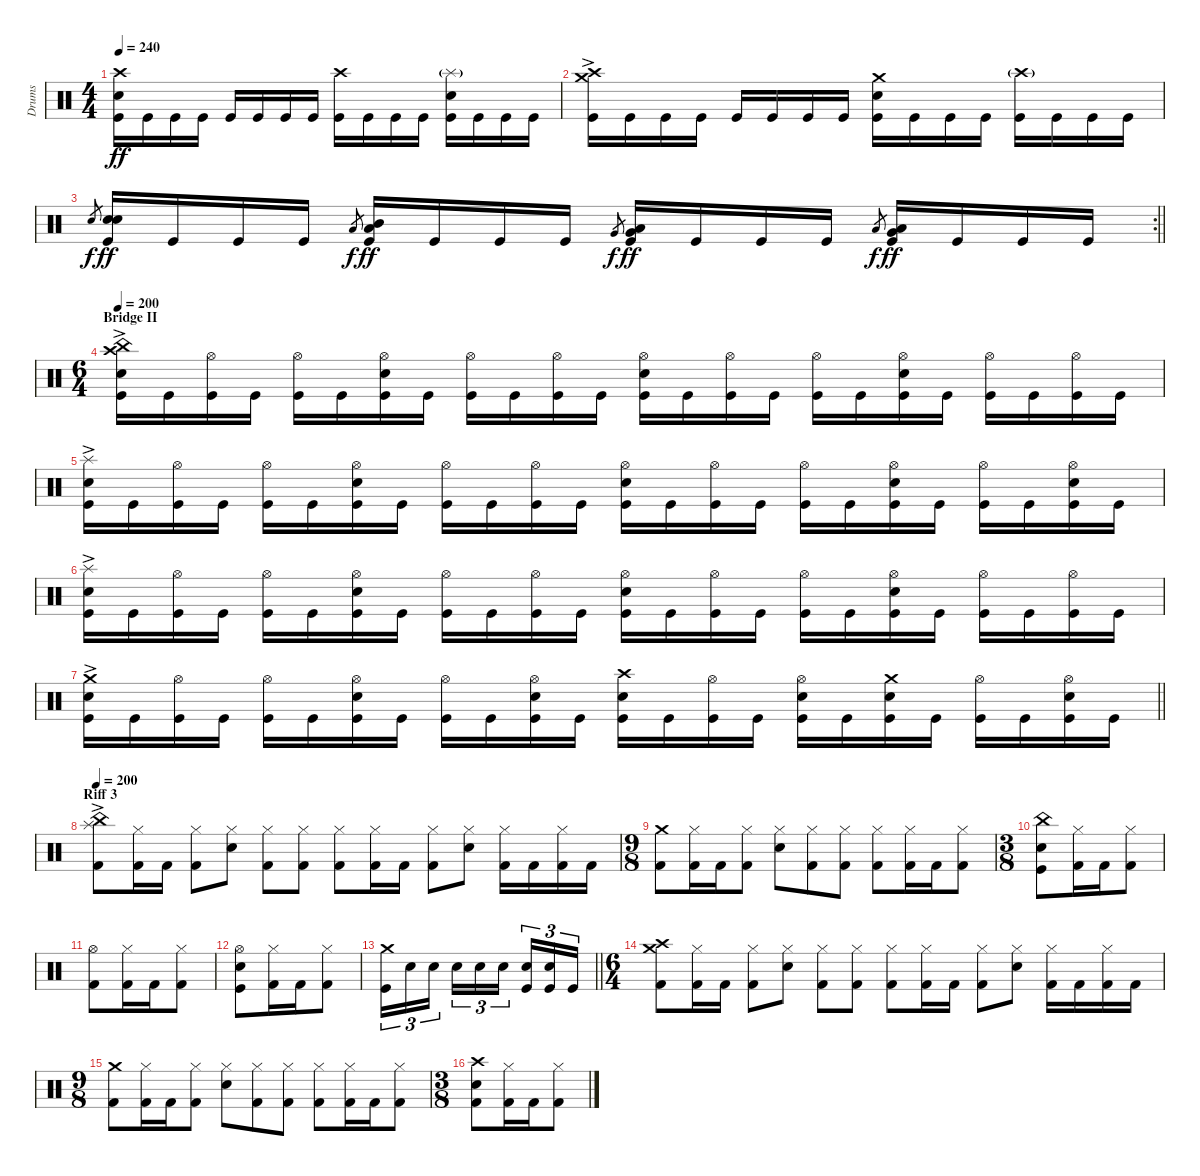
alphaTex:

\track ("Drums" "Drums") {instrument percussion}
\staff {score}
\articulation defaults
\ts (4 4)
\tempo 240
\clef neutral
\ks c
("Crash high (hit)" "Electric Snare (hit)" "Kick (hit)").16{dy ff} "Kick (hit)".16 "Kick (hit)".16 "Kick (hit)".16 "Kick (hit)".16 "Kick (hit)".16 "Kick (hit)".16 "Kick (hit)".16 ("Crash high (hit)" "Kick (hit)").16 "Kick (hit)".16 "Kick (hit)".16 "Kick (hit)".16 ("Splash (hit)"{g} "Electric Snare (hit)" "Kick (hit)").16 "Kick (hit)".16 "Kick (hit)".16 "Kick (hit)".16 |
("Crash high (hit)"{ac} "Crash medium (hit)" "Kick (hit)").16 "Kick (hit)".16 "Kick (hit)".16 "Kick (hit)".16 "Kick (hit)".16 "Kick (hit)".16 "Kick (hit)".16 "Kick (hit)".16 ("Crash medium (hit)" "Electric Snare (hit)" "Kick (hit)").16 "Kick (hit)".16 "Kick (hit)".16 "Kick (hit)".16 ("Crash high (hit)"{g} "Kick (hit)").16 "Kick (hit)".16 "Kick (hit)".16 "Kick (hit)".16 |
\rc 2
\barLineRight lightlight "Electric Snare (hit)".8{gr dy f}
("Electric Snare (hit)" "Electric Snare (hit)" "Kick (hit)").16{dy ff} "Kick (hit)".16 "Kick (hit)".16 "Kick (hit)".16 "Low Tom (hit)".8{gr dy f} ("Mid Tom (hit)" "Low Tom (hit)" "Kick (hit)").16{dy ff} "Kick (hit)".16 "Kick (hit)".16 "Kick (hit)".16 "Very Low Tom (hit)".8{gr dy f} ("Low Tom (hit)" "Very Low Tom (hit)" "Kick (hit)").16{dy ff} "Kick (hit)".16 "Kick (hit)".16 "Kick (hit)".16 "Low Floor Tom (hit)".8{gr dy f} ("Very Low Tom (hit)" "Low Floor Tom (hit)" "Kick (hit)").16{dy ff} "Kick (hit)".16 "Kick (hit)".16 "Kick (hit)".16 |
\ts (6 4)
\section ("" "Bridge II")
\tempo 200
("China (hit)"{ac} "Crash high (hit)" "Electric Snare (hit)" "Kick (hit)").16 "Kick (hit)".16 ("Hi-Hat (open)" "Kick (hit)").16 "Kick (hit)".16 ("Hi-Hat (open)" "Kick (hit)").16 "Kick (hit)".16 ("Hi-Hat (open)" "Electric Snare (hit)" "Kick (hit)").16 "Kick (hit)".16 ("Hi-Hat (open)" "Kick (hit)").16 "Kick (hit)".16 ("Hi-Hat (open)" "Kick (hit)").16 "Kick (hit)".16 ("Hi-Hat (open)" "Electric Snare (hit)" "Kick (hit)").16 "Kick (hit)".16 ("Hi-Hat (open)" "Kick (hit)").16 "Kick (hit)".16 ("Hi-Hat (open)" "Kick (hit)").16 "Kick (hit)".16 ("Hi-Hat (open)" "Electric Snare (hit)" "Kick (hit)").16 "Kick (hit)".16 ("Hi-Hat (open)" "Kick (hit)").16 "Kick (hit)".16 ("Hi-Hat (open)" "Kick (hit)").16 "Kick (hit)".16 |
("Splash (hit)"{ac} "Electric Snare (hit)" "Kick (hit)").16 "Kick (hit)".16 ("Hi-Hat (open)" "Kick (hit)").16 "Kick (hit)".16 ("Hi-Hat (open)" "Kick (hit)").16 "Kick (hit)".16 ("Hi-Hat (open)" "Electric Snare (hit)" "Kick (hit)").16 "Kick (hit)".16 ("Hi-Hat (open)" "Kick (hit)").16 "Kick (hit)".16 ("Hi-Hat (open)" "Kick (hit)").16 "Kick (hit)".16 ("Hi-Hat (open)" "Electric Snare (hit)" "Kick (hit)").16 "Kick (hit)".16 ("Hi-Hat (open)" "Kick (hit)").16 "Kick (hit)".16 ("Hi-Hat (open)" "Kick (hit)").16 "Kick (hit)".16 ("Hi-Hat (open)" "Electric Snare (hit)" "Kick (hit)").16 "Kick (hit)".16 ("Hi-Hat (open)" "Kick (hit)").16 "Kick (hit)".16 ("Hi-Hat (open)" "Electric Snare (hit)" "Kick (hit)").16 "Kick (hit)".16 |
("Splash (hit)"{ac} "Electric Snare (hit)" "Kick (hit)").16 "Kick (hit)".16 ("Hi-Hat (open)" "Kick (hit)").16 "Kick (hit)".16 ("Hi-Hat (open)" "Kick (hit)").16 "Kick (hit)".16 ("Hi-Hat (open)" "Electric Snare (hit)" "Kick (hit)").16 "Kick (hit)".16 ("Hi-Hat (open)" "Kick (hit)").16 "Kick (hit)".16 ("Hi-Hat (open)" "Kick (hit)").16 "Kick (hit)".16 ("Hi-Hat (open)" "Electric Snare (hit)" "Kick (hit)").16 "Kick (hit)".16 ("Hi-Hat (open)" "Kick (hit)").16 "Kick (hit)".16 ("Hi-Hat (open)" "Kick (hit)").16 "Kick (hit)".16 ("Hi-Hat (open)" "Electric Snare (hit)" "Kick (hit)").16 "Kick (hit)".16 ("Hi-Hat (open)" "Kick (hit)").16 "Kick (hit)".16 ("Hi-Hat (open)" "Kick (hit)").16 "Kick (hit)".16 |
\barLineRight lightlight
("Crash medium (hit)"{ac} "Electric Snare (hit)" "Kick (hit)").16 "Kick (hit)".16 ("Hi-Hat (open)" "Kick (hit)").16 "Kick (hit)".16 ("Hi-Hat (open)" "Kick (hit)").16 "Kick (hit)".16 ("Hi-Hat (open)" "Electric Snare (hit)" "Kick (hit)").16 "Kick (hit)".16 ("Hi-Hat (open)" "Kick (hit)").16 "Kick (hit)".16 ("Hi-Hat (open)" "Electric Snare (hit)" "Kick (hit)").16 "Kick (hit)".16 ("Crash high (hit)" "Electric Snare (hit)" "Kick (hit)").16 "Kick (hit)".16 ("Hi-Hat (open)" "Kick (hit)").16 "Kick (hit)".16 ("Hi-Hat (open)" "Electric Snare (hit)" "Kick (hit)").16 "Kick (hit)".16 ("Crash medium (hit)" "Electric Snare (hit)" "Kick (hit)").16 "Kick (hit)".16 ("Hi-Hat (open)" "Kick (hit)").16 "Kick (hit)".16 ("Hi-Hat (open)" "Electric Snare (hit)" "Kick (hit)").16 "Kick (hit)".16 |
\section ("" "Riff 3")
\tempo 200
("China (hit)"{ac} "Splash (hit)" "Kick (hit) 2").8 ("Hi-Hat (closed)" "Kick (hit) 2").16 "Kick (hit) 2".16 ("Hi-Hat (closed)" "Kick (hit) 2").8 ("Hi-Hat (closed)" "Electric Snare (hit)").8 ("Hi-Hat (closed)" "Kick (hit) 2").8 ("Hi-Hat (closed)" "Kick (hit) 2").8 ("Hi-Hat (closed)" "Kick (hit) 2").8 ("Hi-Hat (closed)" "Kick (hit) 2").16 "Kick (hit) 2".16 ("Hi-Hat (closed)" "Kick (hit) 2").8 ("Hi-Hat (closed)" "Electric Snare (hit)").8 ("Hi-Hat (closed)" "Kick (hit) 2").16 "Kick (hit) 2".16 ("Hi-Hat (closed)" "Kick (hit) 2").16 "Kick (hit) 2".16 |
\ts (9 8)
("Crash medium (hit)" "Kick (hit) 2").8 ("Hi-Hat (closed)" "Kick (hit) 2").16 "Kick (hit) 2".16 ("Hi-Hat (closed)" "Kick (hit) 2").8 ("Hi-Hat (closed)" "Electric Snare (hit)").8 ("Hi-Hat (closed)" "Kick (hit) 2").8 ("Hi-Hat (closed)" "Kick (hit) 2").8 ("Hi-Hat (closed)" "Kick (hit) 2").8 ("Hi-Hat (closed)" "Kick (hit) 2").16 "Kick (hit) 2".16 ("Hi-Hat (closed)" "Kick (hit) 2").8 |
\ts (3 8)
("China (hit)" "Electric Snare (hit)" "Kick (hit)").8 ("Hi-Hat (closed)" "Kick (hit) 2").16 "Kick (hit) 2".16 ("Hi-Hat (closed)" "Kick (hit) 2").8 |
("Hi-Hat (open)" "Kick (hit) 2").8 ("Hi-Hat (closed)" "Kick (hit) 2").16 "Kick (hit) 2".16 ("Hi-Hat (closed)" "Kick (hit) 2").8 |
("Hi-Hat (open)" "Electric Snare (hit)" "Kick (hit)").8 ("Hi-Hat (closed)" "Kick (hit) 2").16 "Kick (hit) 2".16 ("Hi-Hat (closed)" "Kick (hit) 2").8 |
\barLineRight lightlight
("Crash medium (hit)" "Kick (hit)").16{tu (3 2)} "Electric Snare (hit)".16{tu (3 2)} "Electric Snare (hit)".16{tu (3 2)} "Electric Snare (hit)".16{tu (3 2)} "Electric Snare (hit)".16{tu (3 2)} "Electric Snare (hit)".16{tu (3 2)} ("Electric Snare (hit)" "Kick (hit)").16{tu (3 2)} ("Electric Snare (hit)" "Kick (hit)").16{tu (3 2)} "Kick (hit)".16{tu (3 2)} |
\ts (6 4)
("Crash high (hit)" "Crash medium (hit)" "Kick (hit) 2").8 ("Hi-Hat (closed)" "Kick (hit) 2").16 "Kick (hit) 2".16 ("Hi-Hat (closed)" "Kick (hit) 2").8 ("Hi-Hat (closed)" "Electric Snare (hit)").8 ("Hi-Hat (closed)" "Kick (hit) 2").8 ("Hi-Hat (closed)" "Kick (hit) 2").8 ("Hi-Hat (closed)" "Kick (hit) 2").8 ("Hi-Hat (closed)" "Kick (hit) 2").16 "Kick (hit) 2".16 ("Hi-Hat (closed)" "Kick (hit) 2").8 ("Hi-Hat (closed)" "Electric Snare (hit)").8 ("Hi-Hat (closed)" "Kick (hit) 2").16 "Kick (hit) 2".16 ("Hi-Hat (closed)" "Kick (hit) 2").16 "Kick (hit) 2".16 |
\ts (9 8)
("Crash medium (hit)" "Kick (hit) 2").8 ("Hi-Hat (closed)" "Kick (hit) 2").16 "Kick (hit) 2".16 ("Hi-Hat (closed)" "Kick (hit) 2").8 ("Hi-Hat (closed)" "Electric Snare (hit)").8 ("Hi-Hat (closed)" "Kick (hit) 2").8 ("Hi-Hat (closed)" "Kick (hit) 2").8 ("Hi-Hat (closed)" "Kick (hit) 2").8 ("Hi-Hat (closed)" "Kick (hit) 2").16 "Kick (hit) 2".16 ("Hi-Hat (closed)" "Kick (hit) 2").8 |
\ts (3 8)
("Crash high (hit)" "Electric Snare (hit)" "Kick (hit) 2").8 ("Hi-Hat (closed)" "Kick (hit) 2").16 "Kick (hit) 2".16 ("Hi-Hat (closed)" "Kick (hit) 2").8
